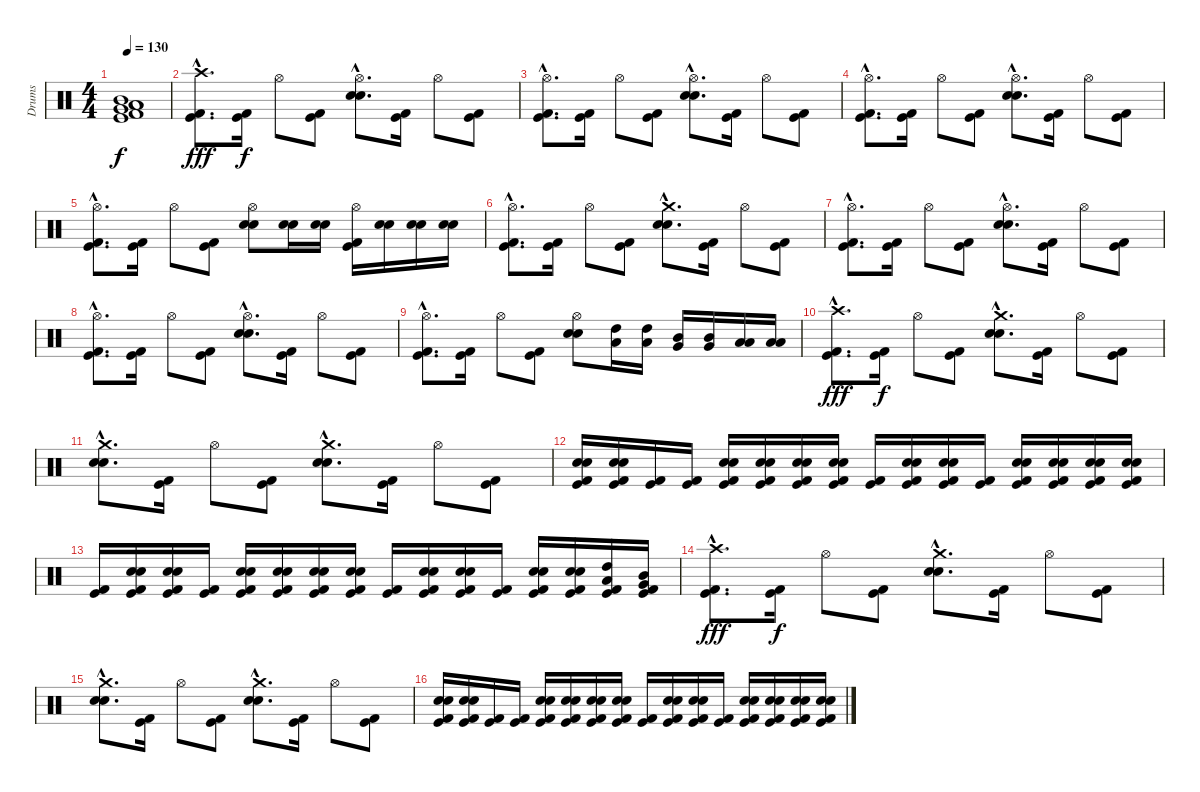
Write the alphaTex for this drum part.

\track ("Drums" "Drums") {instrument percussion}
\staff {score}
\articulation defaults
\ts (4 4)
\tempo 130
\clef neutral
\ks c
("Mid Tom (hit)" "Very Low Tom (hit)" "Low Tom (hit)" "Low Floor Tom (hit)" "Kick (hit) 2" "Kick (hit)").1{dy f} |
("Crash high (hit)"{hac} "Kick (hit) 2"{hac} "Kick (hit)"{hac}).8{d dy fff} ("Kick (hit) 2" "Kick (hit)").16{dy f} "Hi-Hat (open)".8 ("Kick (hit) 2" "Kick (hit)").8 ("Hi-Hat (open)"{hac} "Electric Snare (hit)"{hac} "Snare (hit) 2"{hac}).8{d} ("Kick (hit) 2" "Kick (hit)").16 "Hi-Hat (open)".8 ("Kick (hit) 2" "Kick (hit)").8 |
("Hi-Hat (open)"{hac} "Kick (hit) 2"{hac} "Kick (hit)"{hac}).8{d} ("Kick (hit) 2" "Kick (hit)").16 "Hi-Hat (open)".8 ("Kick (hit) 2" "Kick (hit)").8 ("Hi-Hat (open)"{hac} "Electric Snare (hit)"{hac} "Snare (hit) 2"{hac}).8{d} ("Kick (hit) 2" "Kick (hit)").16 "Hi-Hat (open)".8 ("Kick (hit) 2" "Kick (hit)").8 |
("Hi-Hat (open)"{hac} "Kick (hit) 2"{hac} "Kick (hit)"{hac}).8{d} ("Kick (hit) 2" "Kick (hit)").16 "Hi-Hat (open)".8 ("Kick (hit) 2" "Kick (hit)").8 ("Hi-Hat (open)"{hac} "Electric Snare (hit)"{hac} "Snare (hit) 2"{hac}).8{d} ("Kick (hit) 2" "Kick (hit)").16 "Hi-Hat (open)".8 ("Kick (hit) 2" "Kick (hit)").8 |
("Hi-Hat (open)"{hac} "Kick (hit) 2"{hac} "Kick (hit)"{hac}).8{d} ("Kick (hit) 2" "Kick (hit)").16 "Hi-Hat (open)".8 ("Kick (hit) 2" "Kick (hit)").8 ("Hi-Hat (open)" "Electric Snare (hit)" "Snare (hit) 2").8 ("Electric Snare (hit)" "Snare (hit) 2").16 ("Electric Snare (hit)" "Snare (hit) 2").16 ("Hi-Hat (open)" "Kick (hit) 2" "Kick (hit)").16 ("Electric Snare (hit)" "Snare (hit) 2").16 ("Electric Snare (hit)" "Snare (hit) 2").16 ("Electric Snare (hit)" "Snare (hit) 2").16 |
("Hi-Hat (open)"{hac} "Kick (hit) 2"{hac} "Kick (hit)"{hac}).8{d} ("Kick (hit) 2" "Kick (hit)").16 "Hi-Hat (open)".8 ("Kick (hit) 2" "Kick (hit)").8 ("Crash medium (hit)"{hac} "Electric Snare (hit)"{hac} "Snare (hit) 2"{hac}).8{d} ("Kick (hit) 2" "Kick (hit)").16 "Hi-Hat (open)".8 ("Kick (hit) 2" "Kick (hit)").8 |
("Hi-Hat (open)"{hac} "Kick (hit) 2"{hac} "Kick (hit)"{hac}).8{d} ("Kick (hit) 2" "Kick (hit)").16 "Hi-Hat (open)".8 ("Kick (hit) 2" "Kick (hit)").8 ("Hi-Hat (open)"{hac} "Electric Snare (hit)"{hac} "Snare (hit) 2"{hac}).8{d} ("Kick (hit) 2" "Kick (hit)").16 "Hi-Hat (open)".8 ("Kick (hit) 2" "Kick (hit)").8 |
("Hi-Hat (open)"{hac} "Kick (hit) 2"{hac} "Kick (hit)"{hac}).8{d} ("Kick (hit) 2" "Kick (hit)").16 "Hi-Hat (open)".8 ("Kick (hit) 2" "Kick (hit)").8 ("Hi-Hat (open)"{hac} "Electric Snare (hit)"{hac} "Snare (hit) 2"{hac}).8{d} ("Kick (hit) 2" "Kick (hit)").16 "Hi-Hat (open)".8 ("Kick (hit) 2" "Kick (hit)").8 |
("Hi-Hat (open)"{hac} "Kick (hit) 2"{hac} "Kick (hit)"{hac}).8{d} ("Kick (hit) 2" "Kick (hit)").16 "Hi-Hat (open)".8 ("Kick (hit) 2" "Kick (hit)").8 ("Hi-Hat (open)" "Electric Snare (hit)" "Snare (hit) 2").8 ("High Tom (hit)" "Low Tom (hit)").16 ("High Tom (hit)" "Low Tom (hit)").16 ("Mid Tom (hit)" "Very Low Tom (hit)").16 ("Mid Tom (hit)" "Very Low Tom (hit)").16 ("Low Tom (hit)" "Low Floor Tom (hit)").16 ("Low Tom (hit)" "Low Floor Tom (hit)").16 |
("Crash high (hit)"{hac} "Kick (hit) 2"{hac} "Kick (hit)"{hac}).8{d dy fff} ("Kick (hit) 2" "Kick (hit)").16{dy f} "Hi-Hat (open)".8 ("Kick (hit) 2" "Kick (hit)").8 ("Crash medium (hit)"{hac} "Electric Snare (hit)"{hac} "Snare (hit) 2"{hac}).8{d} ("Kick (hit) 2" "Kick (hit)").16 "Hi-Hat (open)".8 ("Kick (hit) 2" "Kick (hit)").8 |
("Crash medium (hit)"{hac} "Electric Snare (hit)"{hac} "Snare (hit) 2"{hac}).8{d} ("Kick (hit) 2" "Kick (hit)").16 "Hi-Hat (open)".8 ("Kick (hit) 2" "Kick (hit)").8 ("Crash medium (hit)"{hac} "Electric Snare (hit)"{hac} "Snare (hit) 2"{hac}).8{d} ("Kick (hit) 2" "Kick (hit)").16 "Hi-Hat (open)".8 ("Kick (hit) 2" "Kick (hit)").8 |
("Electric Snare (hit)" "Snare (hit) 2" "Kick (hit) 2" "Kick (hit)").16 ("Electric Snare (hit)" "Snare (hit) 2" "Kick (hit) 2" "Kick (hit)").16 ("Kick (hit) 2" "Kick (hit)").16 ("Kick (hit) 2" "Kick (hit)").16 ("Electric Snare (hit)" "Snare (hit) 2" "Kick (hit) 2" "Kick (hit)").16 ("Electric Snare (hit)" "Snare (hit) 2" "Kick (hit) 2" "Kick (hit)").16 ("Electric Snare (hit)" "Snare (hit) 2" "Kick (hit) 2" "Kick (hit)").16 ("Electric Snare (hit)" "Snare (hit) 2" "Kick (hit) 2" "Kick (hit)").16 ("Kick (hit) 2" "Kick (hit)").16 ("Electric Snare (hit)" "Snare (hit) 2" "Kick (hit) 2" "Kick (hit)").16 ("Electric Snare (hit)" "Snare (hit) 2" "Kick (hit) 2" "Kick (hit)").16 ("Kick (hit) 2" "Kick (hit)").16 ("Electric Snare (hit)" "Snare (hit) 2" "Kick (hit) 2" "Kick (hit)").16 ("Electric Snare (hit)" "Snare (hit) 2" "Kick (hit) 2" "Kick (hit)").16 ("Electric Snare (hit)" "Snare (hit) 2" "Kick (hit) 2" "Kick (hit)").16 ("Electric Snare (hit)" "Snare (hit) 2" "Kick (hit) 2" "Kick (hit)").16 |
("Kick (hit) 2" "Kick (hit)").16 ("Electric Snare (hit)" "Snare (hit) 2" "Kick (hit) 2" "Kick (hit)").16 ("Electric Snare (hit)" "Snare (hit) 2" "Kick (hit) 2" "Kick (hit)").16 ("Kick (hit) 2" "Kick (hit)").16 ("Electric Snare (hit)" "Snare (hit) 2" "Kick (hit) 2" "Kick (hit)").16 ("Electric Snare (hit)" "Snare (hit) 2" "Kick (hit) 2" "Kick (hit)").16 ("Electric Snare (hit)" "Snare (hit) 2" "Kick (hit) 2" "Kick (hit)").16 ("Electric Snare (hit)" "Snare (hit) 2" "Kick (hit) 2" "Kick (hit)").16 ("Kick (hit) 2" "Kick (hit)").16 ("Electric Snare (hit)" "Snare (hit) 2" "Kick (hit) 2" "Kick (hit)").16 ("Electric Snare (hit)" "Snare (hit) 2" "Kick (hit) 2" "Kick (hit)").16 ("Kick (hit) 2" "Kick (hit)").16 ("Electric Snare (hit)" "Snare (hit) 2" "Kick (hit) 2" "Kick (hit)").16 ("Electric Snare (hit)" "Snare (hit) 2" "Kick (hit) 2" "Kick (hit)").16 ("High Tom (hit)" "Low Tom (hit)" "Kick (hit) 2" "Kick (hit)").16 ("Mid Tom (hit)" "Very Low Tom (hit)" "Kick (hit) 2" "Kick (hit)").16 |
("Crash high (hit)"{hac} "Kick (hit) 2"{hac} "Kick (hit)"{hac}).8{d dy fff} ("Kick (hit) 2" "Kick (hit)").16{dy f} "Hi-Hat (open)".8 ("Kick (hit) 2" "Kick (hit)").8 ("Crash medium (hit)"{hac} "Electric Snare (hit)"{hac} "Snare (hit) 2"{hac}).8{d} ("Kick (hit) 2" "Kick (hit)").16 "Hi-Hat (open)".8 ("Kick (hit) 2" "Kick (hit)").8 |
("Crash medium (hit)"{hac} "Electric Snare (hit)"{hac} "Snare (hit) 2"{hac}).8{d} ("Kick (hit) 2" "Kick (hit)").16 "Hi-Hat (open)".8 ("Kick (hit) 2" "Kick (hit)").8 ("Crash medium (hit)"{hac} "Electric Snare (hit)"{hac} "Snare (hit) 2"{hac}).8{d} ("Kick (hit) 2" "Kick (hit)").16 "Hi-Hat (open)".8 ("Kick (hit) 2" "Kick (hit)").8 |
("Electric Snare (hit)" "Snare (hit) 2" "Kick (hit) 2" "Kick (hit)").16 ("Electric Snare (hit)" "Snare (hit) 2" "Kick (hit) 2" "Kick (hit)").16 ("Kick (hit) 2" "Kick (hit)").16 ("Kick (hit) 2" "Kick (hit)").16 ("Electric Snare (hit)" "Snare (hit) 2" "Kick (hit) 2" "Kick (hit)").16 ("Electric Snare (hit)" "Snare (hit) 2" "Kick (hit) 2" "Kick (hit)").16 ("Electric Snare (hit)" "Snare (hit) 2" "Kick (hit) 2" "Kick (hit)").16 ("Electric Snare (hit)" "Snare (hit) 2" "Kick (hit) 2" "Kick (hit)").16 ("Kick (hit) 2" "Kick (hit)").16 ("Electric Snare (hit)" "Snare (hit) 2" "Kick (hit) 2" "Kick (hit)").16 ("Electric Snare (hit)" "Snare (hit) 2" "Kick (hit) 2" "Kick (hit)").16 ("Kick (hit) 2" "Kick (hit)").16 ("Electric Snare (hit)" "Snare (hit) 2" "Kick (hit) 2" "Kick (hit)").16 ("Electric Snare (hit)" "Snare (hit) 2" "Kick (hit) 2" "Kick (hit)").16 ("Electric Snare (hit)" "Snare (hit) 2" "Kick (hit) 2" "Kick (hit)").16 ("Electric Snare (hit)" "Snare (hit) 2" "Kick (hit) 2" "Kick (hit)").16
